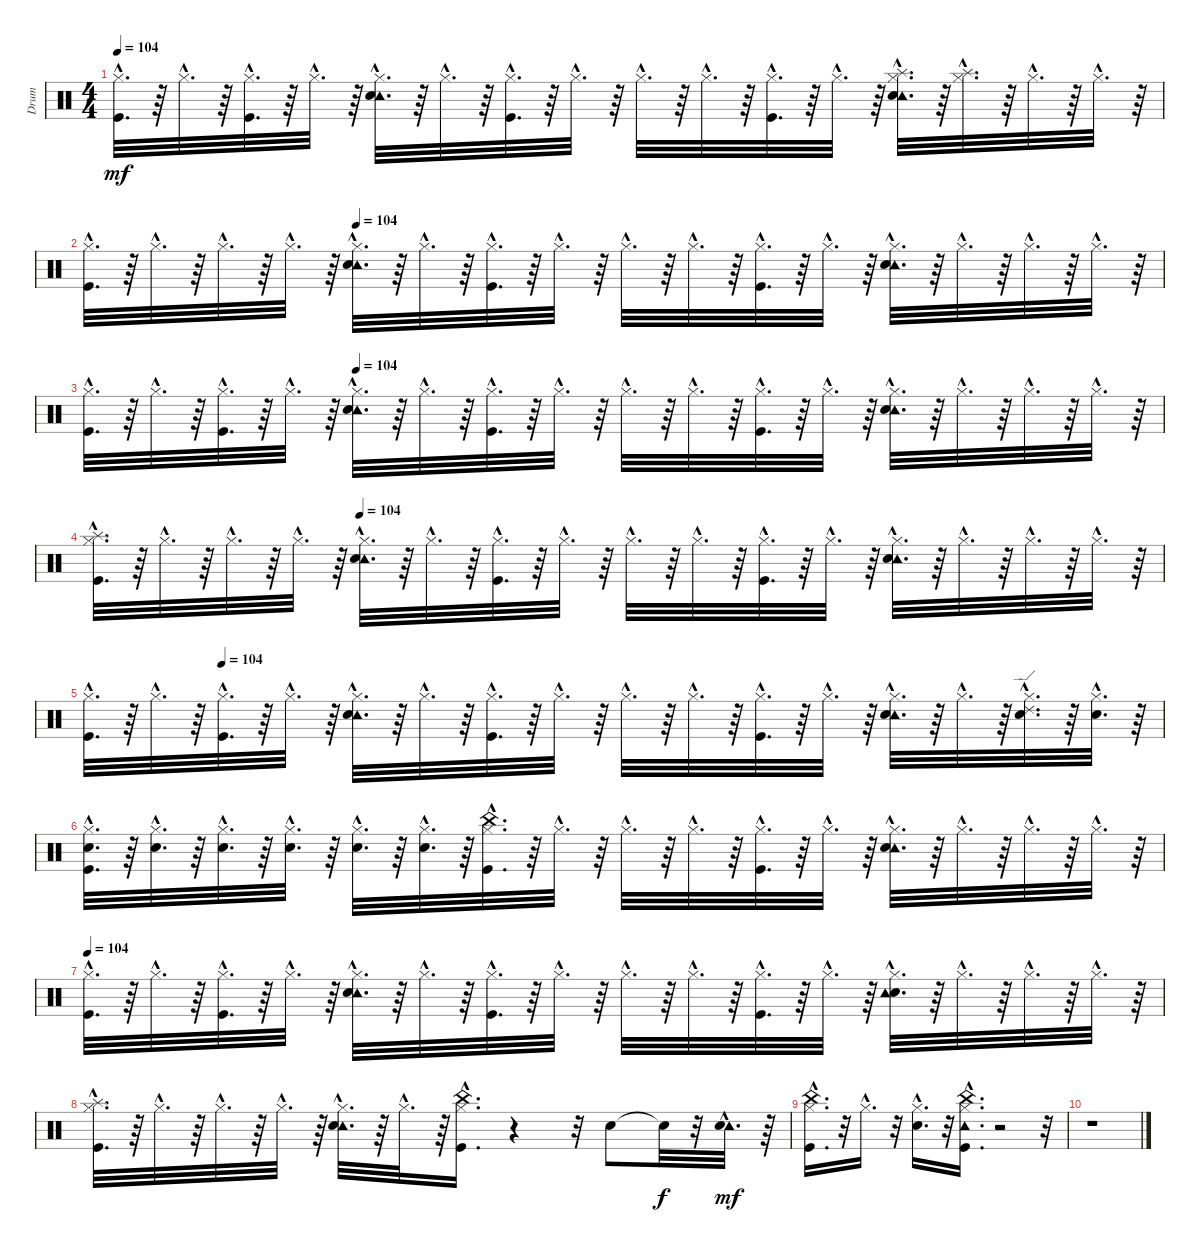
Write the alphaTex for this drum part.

\track ("Drum" "Drum") {instrument percussion}
\staff {score}
\articulation defaults
\ts (4 4)
\tempo 104
\clef neutral
\ks c
("Kick (hit)"{hac} "Hi-Hat (closed)"{hac}).32{d dy mf} r.64 "Hi-Hat (closed)"{hac}.32{d} r.64 ("Hi-Hat (closed)"{hac} "Kick (hit)"{hac}).32{d} r.64 "Hi-Hat (closed)"{hac}.32{d} r.64 ("Tambourine (hit)"{hac} "Snare (hit) 2"{hac} "Hi-Hat (closed)"{hac}).32{d} r.64 "Hi-Hat (closed)"{hac}.32{d} r.64 ("Kick (hit)"{hac} "Hi-Hat (closed)"{hac}).32{d} r.64 "Hi-Hat (closed)"{hac}.32{d} r.64 "Hi-Hat (closed)"{hac}.32{d} r.64 "Hi-Hat (closed)"{hac}.32{d} r.64 ("Kick (hit)"{hac} "Hi-Hat (closed)"{hac}).32{d} r.64 "Hi-Hat (closed)"{hac}.32{d} r.64 ("Tambourine (hit)"{hac} "Splash (hit)"{hac} "Snare (hit) 2"{hac} "Hi-Hat (closed)"{hac}).32{d} r.64 ("Splash (hit)"{hac} "Hi-Hat (closed)"{hac}).32{d} r.64 "Hi-Hat (closed)"{hac}.32{d} r.64 "Hi-Hat (closed)"{hac}.32{d} r.64 |
\tempo (104 0.25)
("Kick (hit)"{hac} "Hi-Hat (closed)"{hac}).32{d} r.64 "Hi-Hat (closed)"{hac}.32{d} r.64 "Hi-Hat (closed)"{hac}.32{d} r.64 "Hi-Hat (closed)"{hac}.32{d} r.64 ("Tambourine (hit)"{hac} "Snare (hit) 2"{hac} "Hi-Hat (closed)"{hac}).32{d} r.64 "Hi-Hat (closed)"{hac}.32{d} r.64 ("Kick (hit)"{hac} "Hi-Hat (closed)"{hac}).32{d} r.64 "Hi-Hat (closed)"{hac}.32{d} r.64 "Hi-Hat (closed)"{hac}.32{d} r.64 "Hi-Hat (closed)"{hac}.32{d} r.64 ("Kick (hit)"{hac} "Hi-Hat (closed)"{hac}).32{d} r.64 "Hi-Hat (closed)"{hac}.32{d} r.64 ("Tambourine (hit)"{hac} "Snare (hit) 2"{hac} "Hi-Hat (closed)"{hac}).32{d} r.64 "Hi-Hat (closed)"{hac}.32{d} r.64 "Hi-Hat (closed)"{hac}.32{d} r.64 "Hi-Hat (closed)"{hac}.32{d} r.64 |
\tempo (104 0.25)
("Hi-Hat (closed)"{hac} "Kick (hit)"{hac}).32{d} r.64 "Hi-Hat (closed)"{hac}.32{d} r.64 ("Kick (hit)"{hac} "Hi-Hat (closed)"{hac}).32{d} r.64 "Hi-Hat (closed)"{hac}.32{d} r.64 ("Tambourine (hit)"{hac} "Hi-Hat (closed)"{hac} "Snare (hit) 2"{hac}).32{d} r.64 "Hi-Hat (closed)"{hac}.32{d} r.64 ("Hi-Hat (closed)"{hac} "Kick (hit)"{hac}).32{d} r.64 "Hi-Hat (closed)"{hac}.32{d} r.64 "Hi-Hat (closed)"{hac}.32{d} r.64 "Hi-Hat (closed)"{hac}.32{d} r.64 ("Hi-Hat (closed)"{hac} "Kick (hit)"{hac}).32{d} r.64 "Hi-Hat (closed)"{hac}.32{d} r.64 ("Tambourine (hit)"{hac} "Hi-Hat (closed)"{hac} "Snare (hit) 2"{hac}).32{d} r.64 "Hi-Hat (closed)"{hac}.32{d} r.64 "Hi-Hat (closed)"{hac}.32{d} r.64 "Hi-Hat (closed)"{hac}.32{d} r.64 |
\tempo (104 0.25)
("Hi-Hat (closed)"{hac} "Kick (hit)"{hac} "Splash (hit)"{hac}).32{d} r.64 "Hi-Hat (closed)"{hac}.32{d} r.64 "Hi-Hat (closed)"{hac}.32{d} r.64 "Hi-Hat (closed)"{hac}.32{d} r.64 ("Tambourine (hit)"{hac} "Hi-Hat (closed)"{hac} "Snare (hit) 2"{hac}).32{d} r.64 "Hi-Hat (closed)"{hac}.32{d} r.64 ("Hi-Hat (closed)"{hac} "Kick (hit)"{hac}).32{d} r.64 "Hi-Hat (closed)"{hac}.32{d} r.64 "Hi-Hat (closed)"{hac}.32{d} r.64 "Hi-Hat (closed)"{hac}.32{d} r.64 ("Hi-Hat (closed)"{hac} "Kick (hit)"{hac}).32{d} r.64 "Hi-Hat (closed)"{hac}.32{d} r.64 ("Tambourine (hit)"{hac} "Hi-Hat (closed)"{hac} "Snare (hit) 2"{hac}).32{d} r.64 "Hi-Hat (closed)"{hac}.32{d} r.64 "Hi-Hat (closed)"{hac}.32{d} r.64 "Hi-Hat (closed)"{hac}.32{d} r.64 |
\tempo (104 0.125)
("Kick (hit)"{hac} "Hi-Hat (closed)"{hac}).32{d} r.64 "Hi-Hat (closed)"{hac}.32{d} r.64 ("Hi-Hat (closed)"{hac} "Kick (hit)"{hac}).32{d} r.64 "Hi-Hat (closed)"{hac}.32{d} r.64 ("Tambourine (hit)"{hac} "Snare (hit) 2"{hac} "Hi-Hat (closed)"{hac}).32{d} r.64 "Hi-Hat (closed)"{hac}.32{d} r.64 ("Kick (hit)"{hac} "Hi-Hat (closed)"{hac}).32{d} r.64 "Hi-Hat (closed)"{hac}.32{d} r.64 "Hi-Hat (closed)"{hac}.32{d} r.64 "Hi-Hat (closed)"{hac}.32{d} r.64 ("Hi-Hat (closed)"{hac} "Kick (hit)"{hac}).32{d} r.64 "Hi-Hat (closed)"{hac}.32{d} r.64 ("Tambourine (hit)"{hac} "Hi-Hat (closed)"{hac} "Snare (hit) 2"{hac}).32{d} r.64 "Hi-Hat (closed)"{hac}.32{d} r.64 ("Snare (hit) 2"{hac} "Hi-Hat (closed)"{hac} "Ride (edge) 2"{hac}).32{d} r.64 ("Snare (hit) 2"{hac} "Hi-Hat (closed)"{hac}).32{d} r.64 |
("Hi-Hat (closed)"{hac} "Kick (hit)"{hac} "Snare (hit) 2"{hac}).32{d} r.64 ("Hi-Hat (closed)"{hac} "Snare (hit) 2"{hac}).32{d} r.64 ("Hi-Hat (closed)"{hac} "Snare (hit) 2"{hac}).32{d} r.64 ("Hi-Hat (closed)"{hac} "Snare (hit) 2"{hac}).32{d} r.64 ("Hi-Hat (closed)"{hac} "Snare (hit) 2"{hac}).32{d} r.64 ("Hi-Hat (closed)"{hac} "Snare (hit) 2"{hac}).32{d} r.64 ("Hi-Hat (closed)"{hac} "Kick (hit)"{hac} "China (hit)"{hac}).32{d} r.64 "Hi-Hat (closed)"{hac}.32{d} r.64 "Hi-Hat (closed)"{hac}.32{d} r.64 "Hi-Hat (closed)"{hac}.32{d} r.64 ("Hi-Hat (closed)"{hac} "Kick (hit)"{hac}).32{d} r.64 "Hi-Hat (closed)"{hac}.32{d} r.64 ("Tambourine (hit)"{hac} "Hi-Hat (closed)"{hac} "Snare (hit) 2"{hac}).32{d} r.64 "Hi-Hat (closed)"{hac}.32{d} r.64 "Hi-Hat (closed)"{hac}.32{d} r.64 "Hi-Hat (closed)"{hac}.32{d} r.64 |
\tempo 104
("Kick (hit)"{hac} "Hi-Hat (closed)"{hac}).32{d} r.64 "Hi-Hat (closed)"{hac}.32{d} r.64 ("Hi-Hat (closed)"{hac} "Kick (hit)"{hac}).32{d} r.64 "Hi-Hat (closed)"{hac}.32{d} r.64 ("Tambourine (hit)"{hac} "Hi-Hat (closed)"{hac} "Snare (hit) 2"{hac}).32{d} r.64 "Hi-Hat (closed)"{hac}.32{d} r.64 ("Kick (hit)"{hac} "Hi-Hat (closed)"{hac}).32{d} r.64 "Hi-Hat (closed)"{hac}.32{d} r.64 "Hi-Hat (closed)"{hac}.32{d} r.64 "Hi-Hat (closed)"{hac}.32{d} r.64 ("Hi-Hat (closed)"{hac} "Kick (hit)"{hac}).32{d} r.64 "Hi-Hat (closed)"{hac}.32{d} r.64 ("Hi-Hat (closed)"{hac} "Snare (hit) 2"{hac} "Tambourine (hit)"{hac}).32{d} r.64 "Hi-Hat (closed)"{hac}.32{d} r.64 "Hi-Hat (closed)"{hac}.32{d} r.64 "Hi-Hat (closed)"{hac}.32{d} r.64 |
("Kick (hit)"{hac} "Hi-Hat (closed)"{hac} "Splash (hit)"{hac}).32{d} r.64 "Hi-Hat (closed)"{hac}.32{d} r.64 "Hi-Hat (closed)"{hac}.32{d} r.64 "Hi-Hat (closed)"{hac}.32{d} r.64 ("Hi-Hat (closed)"{hac} "Tambourine (hit)"{hac} "Snare (hit) 2"{hac}).32{d} r.64 "Hi-Hat (closed)"{hac}.32{d} r.64 ("Kick (hit)"{hac} "China (hit)"{hac} "Hi-Hat (closed)"{hac}).16{d} r.4 r.32 "Snare (hit) 2".8 "Snare (hit)"{t}.32{dy f} r.32 ("Tambourine (hit)"{hac} "Snare (hit) 2"{hac}).32{d dy mf} r.64 |
("Kick (hit)"{hac} "China (hit)"{hac} "Hi-Hat (closed)"{hac}).16{d} r.32 "Hi-Hat (closed)"{hac}.16{d} r.32 ("Hi-Hat (closed)"{hac} "Snare (hit) 2"{hac}).16{d} r.32 ("China (hit)"{hac} "Tambourine (hit)"{hac} "Kick (hit)"{hac} "Hi-Hat (closed)"{hac}).16{d} r.2 r.32 |
r.1
